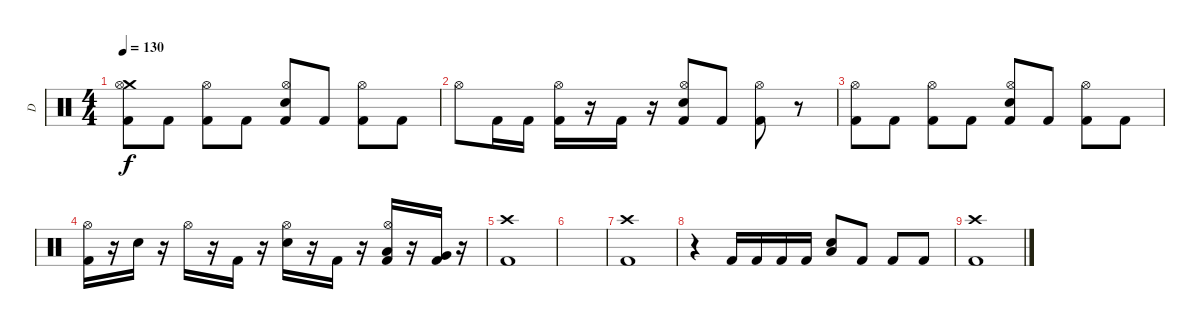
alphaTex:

\track ("D" "D") {instrument percussion}
\staff {score}
\articulation defaults
\ts (4 4)
\tempo 130
\clef neutral
\ks c
("Crash medium (hit)" "Kick (hit) 2" "Hi-Hat (open)").8{dy f} "Kick (hit) 2".8 ("Kick (hit) 2" "Hi-Hat (open)").8 "Kick (hit) 2".8 ("Electric Snare (hit)" "Kick (hit) 2" "Hi-Hat (open)").8 "Kick (hit) 2".8 ("Kick (hit) 2" "Hi-Hat (open)").8 "Kick (hit) 2".8 |
"Hi-Hat (open)".8 "Kick (hit) 2".16 "Kick (hit) 2".16 ("Kick (hit) 2" "Hi-Hat (open)").16 r.16 "Kick (hit) 2".16 r.16 ("Electric Snare (hit)" "Kick (hit) 2" "Hi-Hat (open)").8 "Kick (hit) 2".8 ("Kick (hit) 2" "Hi-Hat (open)").8 r.8 |
("Kick (hit) 2" "Hi-Hat (open)").8 "Kick (hit) 2".8 ("Kick (hit) 2" "Hi-Hat (open)").8 "Kick (hit) 2".8 ("Electric Snare (hit)" "Kick (hit) 2" "Hi-Hat (open)").8 "Kick (hit) 2".8 ("Kick (hit) 2" "Hi-Hat (open)").8 "Kick (hit) 2".8 |
("Kick (hit) 2" "Hi-Hat (open)").16 r.16 "Electric Snare (hit)".16 r.16 "Hi-Hat (open)".16 r.16 "Kick (hit) 2".16 r.16 ("Electric Snare (hit)" "Hi-Hat (open)").16 r.16 "Kick (hit) 2".16 r.16 ("Low Tom (hit)" "Kick (hit) 2" "Hi-Hat (open)").16 r.16 ("Very Low Tom (hit)" "Kick (hit) 2").16 r.16 |
("Crash high (hit)" "Kick (hit) 2").1 |
|
("Crash high (hit)" "Kick (hit) 2").1 |
r.4 "Kick (hit) 2".16 "Kick (hit) 2".16 "Kick (hit) 2".16 "Kick (hit) 2".16 ("Electric Snare (hit)" "Low Tom (hit)").8 "Kick (hit) 2".8 "Kick (hit) 2".8 "Kick (hit) 2".8 |
("Crash high (hit)" "Kick (hit) 2").1
